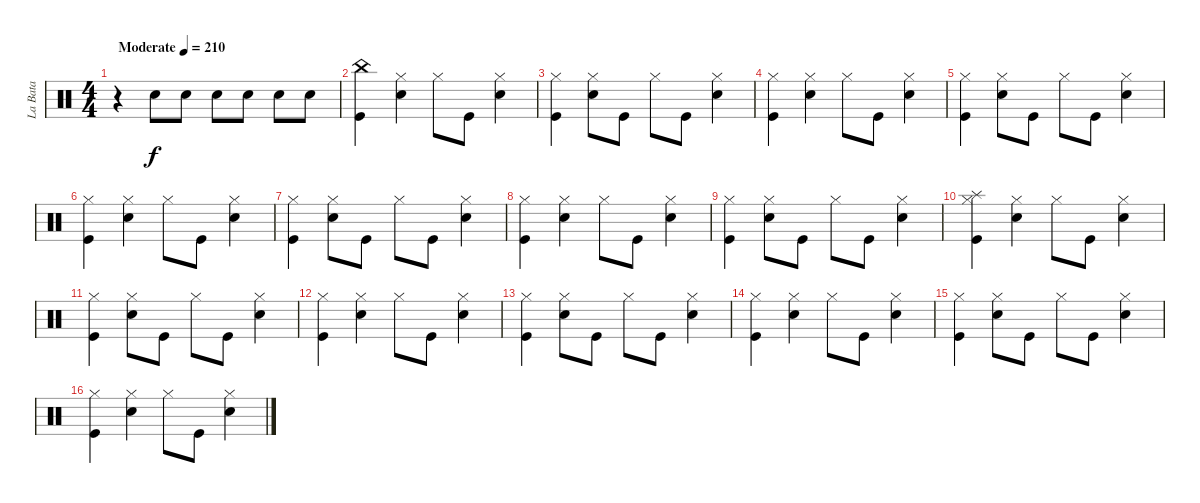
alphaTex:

\track ("La Bata" "La Bata") {instrument percussion}
\staff {score}
\articulation defaults
\ts (4 4)
\tempo (210 "Moderate")
\clef neutral
\ks c
r.4{dy f} "Snare (hit) 2".8 "Snare (hit) 2".8 "Snare (hit) 2".8 "Snare (hit) 2".8 "Snare (hit) 2".8 "Snare (hit) 2".8 |
("Kick (hit)" "China (hit)").4 ("Snare (hit) 2" "Hi-Hat (closed)").4 "Hi-Hat (closed)".8 "Kick (hit)".8 ("Snare (hit) 2" "Hi-Hat (closed)").4 |
("Hi-Hat (closed)" "Kick (hit)").4 ("Snare (hit) 2" "Hi-Hat (closed)").8 "Kick (hit)".8 "Hi-Hat (closed)".8 "Kick (hit)".8 ("Hi-Hat (closed)" "Snare (hit) 2").4 |
("Kick (hit)" "Hi-Hat (closed)").4 ("Snare (hit) 2" "Hi-Hat (closed)").4 "Hi-Hat (closed)".8 "Kick (hit)".8 ("Snare (hit) 2" "Hi-Hat (closed)").4 |
("Hi-Hat (closed)" "Kick (hit)").4 ("Snare (hit) 2" "Hi-Hat (closed)").8 "Kick (hit)".8 "Hi-Hat (closed)".8 "Kick (hit)".8 ("Hi-Hat (closed)" "Snare (hit) 2").4 |
("Kick (hit)" "Hi-Hat (closed)").4 ("Snare (hit) 2" "Hi-Hat (closed)").4 "Hi-Hat (closed)".8 "Kick (hit)".8 ("Snare (hit) 2" "Hi-Hat (closed)").4 |
("Hi-Hat (closed)" "Kick (hit)").4 ("Snare (hit) 2" "Hi-Hat (closed)").8 "Kick (hit)".8 "Hi-Hat (closed)".8 "Kick (hit)".8 ("Hi-Hat (closed)" "Snare (hit) 2").4 |
("Kick (hit)" "Hi-Hat (closed)").4 ("Snare (hit) 2" "Hi-Hat (closed)").4 "Hi-Hat (closed)".8 "Kick (hit)".8 ("Snare (hit) 2" "Hi-Hat (closed)").4 |
("Hi-Hat (closed)" "Kick (hit)").4 ("Snare (hit) 2" "Hi-Hat (closed)").8 "Kick (hit)".8 "Hi-Hat (closed)".8 "Kick (hit)".8 ("Hi-Hat (closed)" "Snare (hit) 2").4 |
("Kick (hit)" "Hi-Hat (closed)" "Splash (hit)").4 ("Snare (hit) 2" "Hi-Hat (closed)").4 "Hi-Hat (closed)".8 "Kick (hit)".8 ("Snare (hit) 2" "Hi-Hat (closed)").4 |
("Hi-Hat (closed)" "Kick (hit)").4 ("Snare (hit) 2" "Hi-Hat (closed)").8 "Kick (hit)".8 "Hi-Hat (closed)".8 "Kick (hit)".8 ("Hi-Hat (closed)" "Snare (hit) 2").4 |
("Kick (hit)" "Hi-Hat (closed)").4 ("Snare (hit) 2" "Hi-Hat (closed)").4 "Hi-Hat (closed)".8 "Kick (hit)".8 ("Snare (hit) 2" "Hi-Hat (closed)").4 |
("Hi-Hat (closed)" "Kick (hit)").4 ("Snare (hit) 2" "Hi-Hat (closed)").8 "Kick (hit)".8 "Hi-Hat (closed)".8 "Kick (hit)".8 ("Hi-Hat (closed)" "Snare (hit) 2").4 |
("Kick (hit)" "Hi-Hat (closed)").4 ("Snare (hit) 2" "Hi-Hat (closed)").4 "Hi-Hat (closed)".8 "Kick (hit)".8 ("Snare (hit) 2" "Hi-Hat (closed)").4 |
("Hi-Hat (closed)" "Kick (hit)").4 ("Snare (hit) 2" "Hi-Hat (closed)").8 "Kick (hit)".8 "Hi-Hat (closed)".8 "Kick (hit)".8 ("Hi-Hat (closed)" "Snare (hit) 2").4 |
("Kick (hit)" "Hi-Hat (closed)").4 ("Snare (hit) 2" "Hi-Hat (closed)").4 "Hi-Hat (closed)".8 "Kick (hit)".8 ("Snare (hit) 2" "Hi-Hat (closed)").4
